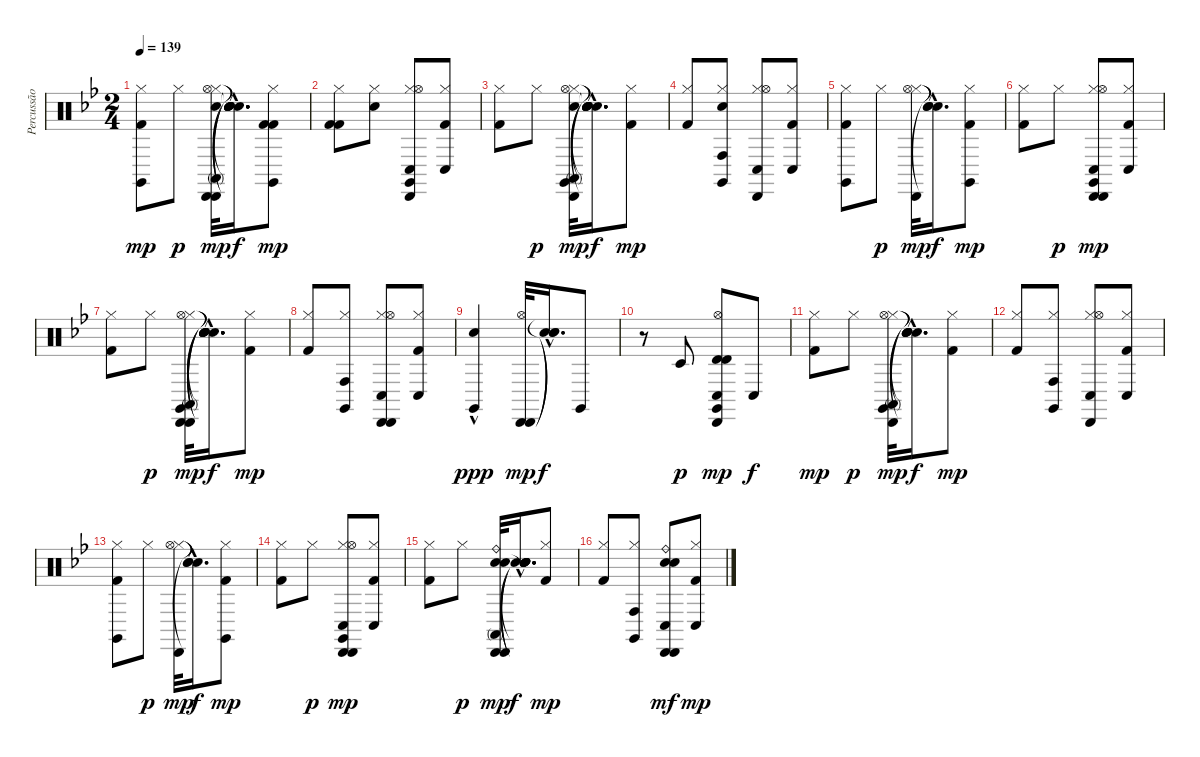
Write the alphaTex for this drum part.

\track ("Percussão" "Percussão") {instrument percussion}
\staff {score}
\articulation defaults
\ts (2 4)
\tempo 139
\clef neutral
\ks bb
("Hi-Hat (closed)" "Claves (hit)" "Kick (hit) 2").8{dy mp} "Hi-Hat (closed)".8{dy p} ("Conga high (mute)" "Cabasa (hit)" "Cabasa (hit)" "Electric Snare (hit)" "Hi-Hat (closed)" "Hi-Hat (open)").32{dy mp} ("Snare (hit)"{hac t} "Snare (hit)"{hac t} "Snare (hit)"{hac t} "Snare (hit)"{hac t} "Snare (hit)"{hac t} "Snare (hit)"{hac t}).16{d dy f} ("Hi-Hat (closed)" "Claves (hit)" "Kick (hit) 2" "Kick (hit) 2").8{dy mp} |
("Hi-Hat (closed)" "Kick (hit) 2" "Kick (hit) 2").8 ("Hi-Hat (closed)" "Electric Snare (hit)").8 ("Cabasa (hit)" "Conga low (hit)" "Claves (hit)" "Hi-Hat (closed)" "Hi-Hat (open)").8 ("Hi-Hat (closed)" "Conga low (hit)" "Kick (hit) 2").8 |
("Hi-Hat (closed)" "Kick (hit) 2").8 "Hi-Hat (closed)".8{dy p} ("Conga high (mute)" "Cabasa (hit)" "Electric Snare (hit)" "Claves (hit)" "Hi-Hat (closed)" "Hi-Hat (open)").32{dy mp} ("Snare (hit)"{hac t} "Snare (hit)"{hac t} "Snare (hit)"{hac t} "Snare (hit)"{hac t} "Snare (hit)"{hac t} "Snare (hit)"{hac t}).16{d dy f} ("Hi-Hat (closed)" "Kick (hit) 2").8{dy mp} |
("Hi-Hat (closed)" "Kick (hit) 2").8 ("Hi-Hat (closed)" "Claves (hit)" "Electric Snare (hit)" "Conga high (hit)").8 ("Cabasa (hit)" "Conga low (hit)" "Hi-Hat (closed)" "Hi-Hat (open)").8 ("Hi-Hat (closed)" "Conga low (hit)" "Kick (hit) 2").8 |
("Hi-Hat (closed)" "Claves (hit)" "Kick (hit) 2").8 "Hi-Hat (closed)".8{dy p} ("Cabasa (hit)" "Hi-Hat (closed)" "Hi-Hat (open)").32{dy mp} ("Snare (hit)"{hac t} "Snare (hit)"{hac t} "Snare (hit)"{hac t}).16{d dy f} ("Hi-Hat (closed)" "Claves (hit)" "Kick (hit) 2").8{dy mp} |
("Hi-Hat (closed)" "Kick (hit) 2").8 "Hi-Hat (closed)".8{dy p} ("Cabasa (hit)" "Cabasa (hit)" "Conga low (hit)" "Claves (hit)" "Hi-Hat (closed)" "Hi-Hat (open)").8{dy mp} ("Hi-Hat (closed)" "Conga low (hit)" "Kick (hit) 2").8 |
("Hi-Hat (closed)" "Kick (hit) 2").8 "Hi-Hat (closed)".8{dy p} ("Conga high (mute)" "Cabasa (hit)" "Cabasa (hit)" "Claves (hit)" "Hi-Hat (closed)" "Hi-Hat (open)").32{dy mp} ("Snare (hit)"{hac t} "Snare (hit)"{hac t} "Snare (hit)"{hac t} "Snare (hit)"{hac t} "Snare (hit)"{hac t} "Snare (hit)"{hac t}).16{d dy f} ("Hi-Hat (closed)" "Kick (hit) 2").8{dy mp} |
("Hi-Hat (closed)" "Kick (hit) 2").8 ("Hi-Hat (closed)" "Claves (hit)" "Conga high (hit)").8 ("Cabasa (hit)" "Cabasa (hit)" "Conga low (hit)" "Hi-Hat (closed)" "Hi-Hat (open)").8 ("Hi-Hat (closed)" "Conga low (hit)" "Kick (hit) 2").8 |
("Claves (hit)" "Snare (hit)"{hac}).4{dy ppp} ("Cabasa (hit)" "Cabasa (hit)" "Hi-Hat (open)").32{dy mp} ("Snare (hit)"{hac t} "Snare (hit)"{hac t} "Snare (hit)"{hac t}).16{d dy f} "Claves (hit)".8 |
r.8 "Timbale low (hit)".8{dy p} ("Timbale high (hit)" "Timbale high (hit)" "Cabasa (hit)" "Conga low (hit)" "Claves (hit)" "Hi-Hat (open)").8{dy mp} "Conga low (hit)".8{dy f} |
("Hi-Hat (closed)" "Kick (hit) 2").8{dy mp} "Hi-Hat (closed)".8{dy p} ("Conga high (mute)" "Cabasa (hit)" "Claves (hit)" "Hi-Hat (closed)" "Hi-Hat (open)").32{dy mp} ("Snare (hit)"{hac t} "Snare (hit)"{hac t} "Snare (hit)"{hac t} "Snare (hit)"{hac t} "Snare (hit)"{hac t}).16{d dy f} ("Hi-Hat (closed)" "Kick (hit) 2").8{dy mp} |
("Hi-Hat (closed)" "Kick (hit) 2").8 ("Hi-Hat (closed)" "Claves (hit)" "Conga high (hit)").8 ("Cabasa (hit)" "Conga low (hit)" "Hi-Hat (closed)" "Hi-Hat (open)").8 ("Hi-Hat (closed)" "Conga low (hit)" "Kick (hit) 2").8 |
("Hi-Hat (closed)" "Claves (hit)" "Kick (hit) 2").8 "Hi-Hat (closed)".8{dy p} ("Cabasa (hit)" "Hi-Hat (closed)" "Hi-Hat (open)").32{dy mp} ("Snare (hit)"{hac t} "Snare (hit)"{hac t} "Snare (hit)"{hac t}).16{d dy f} ("Hi-Hat (closed)" "Claves (hit)" "Kick (hit) 2").8{dy mp} |
("Hi-Hat (closed)" "Kick (hit) 2").8 "Hi-Hat (closed)".8{dy p} ("Cabasa (hit)" "Cabasa (hit)" "Conga low (hit)" "Claves (hit)" "Hi-Hat (closed)" "Hi-Hat (open)").8{dy mp} ("Hi-Hat (closed)" "Conga low (hit)" "Kick (hit) 2").8 |
("Hi-Hat (closed)" "Kick (hit) 2").8 "Hi-Hat (closed)".8{dy p} ("Conga high (mute)" "Cabasa (hit)" "Cabasa (hit)" "Electric Snare (hit)" "Ride (bell)" "Electric Snare (hit)").32{dy mp} ("Snare (hit)"{hac t} "Snare (hit)"{hac t} "Snare (hit)"{hac t} "Snare (hit)"{hac t} "Snare (hit)"{hac t} "Snare (hit)"{hac t}).16{d dy f} ("Hi-Hat (closed)" "Kick (hit) 2").8{dy mp} |
("Hi-Hat (closed)" "Kick (hit) 2").8 ("Hi-Hat (closed)" "Claves (hit)" "Conga high (hit)").8 ("Cabasa (hit)" "Cabasa (hit)" "Ride (bell)" "Electric Snare (hit)" "Electric Snare (hit)" "Conga low (hit)").8{dy mf} ("Hi-Hat (closed)" "Conga low (hit)" "Kick (hit) 2").8{dy mp}
